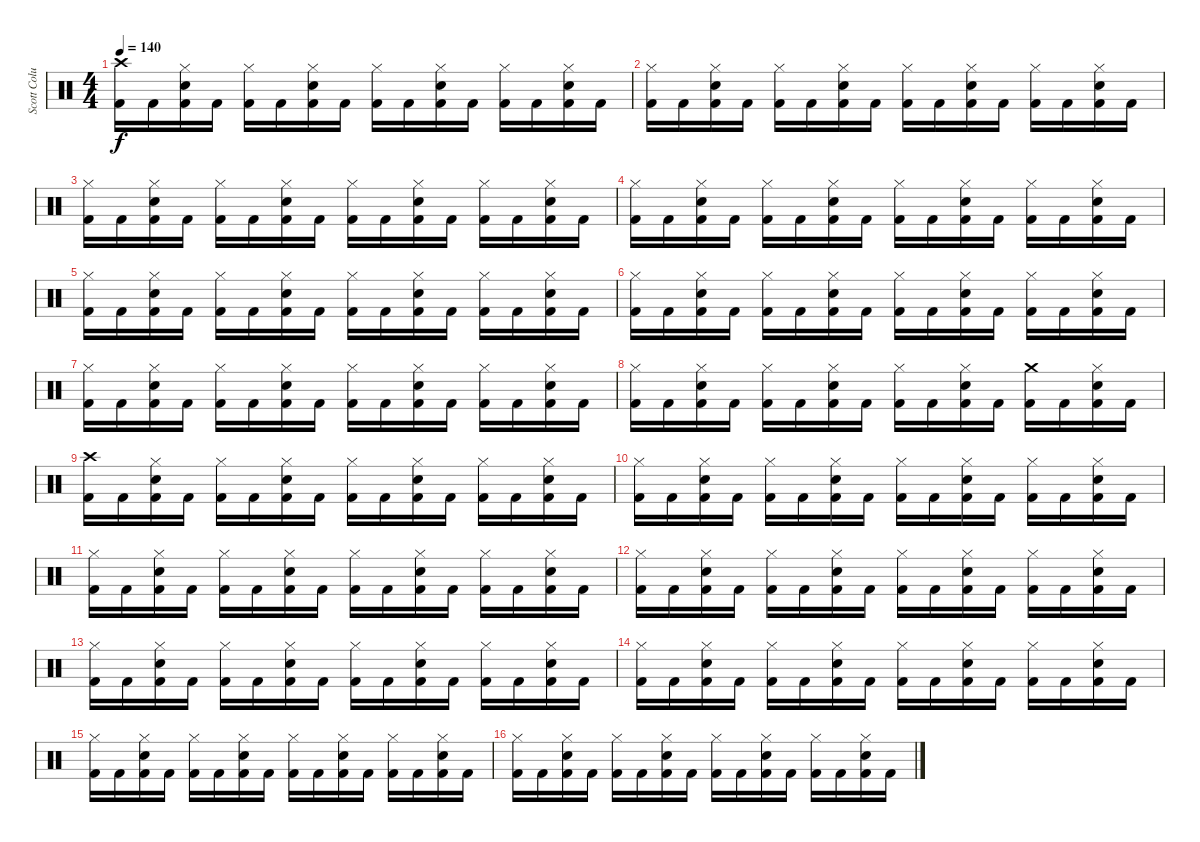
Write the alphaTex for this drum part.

\track ("Scott Columbus(Drums)" "Scott Colu") {instrument percussion}
\staff {score}
\articulation defaults
\ts (4 4)
\tempo 140
\clef neutral
\ks c
("Crash high (hit)" "Kick (hit) 2").16{dy f} "Kick (hit) 2".16 ("Hi-Hat (closed)" "Snare (hit) 2" "Kick (hit) 2").16 "Kick (hit) 2".16 ("Hi-Hat (closed)" "Kick (hit) 2").16 "Kick (hit) 2".16 ("Hi-Hat (closed)" "Snare (hit) 2" "Kick (hit) 2").16 "Kick (hit) 2".16 ("Hi-Hat (closed)" "Kick (hit) 2").16 "Kick (hit) 2".16 ("Hi-Hat (closed)" "Snare (hit) 2" "Kick (hit) 2").16 "Kick (hit) 2".16 ("Hi-Hat (closed)" "Kick (hit) 2").16 "Kick (hit) 2".16 ("Hi-Hat (closed)" "Snare (hit) 2" "Kick (hit) 2").16 "Kick (hit) 2".16 |
("Hi-Hat (closed)" "Kick (hit) 2").16 "Kick (hit) 2".16 ("Hi-Hat (closed)" "Snare (hit) 2" "Kick (hit) 2").16 "Kick (hit) 2".16 ("Hi-Hat (closed)" "Kick (hit) 2").16 "Kick (hit) 2".16 ("Hi-Hat (closed)" "Snare (hit) 2" "Kick (hit) 2").16 "Kick (hit) 2".16 ("Hi-Hat (closed)" "Kick (hit) 2").16 "Kick (hit) 2".16 ("Hi-Hat (closed)" "Snare (hit) 2" "Kick (hit) 2").16 "Kick (hit) 2".16 ("Hi-Hat (closed)" "Kick (hit) 2").16 "Kick (hit) 2".16 ("Hi-Hat (closed)" "Snare (hit) 2" "Kick (hit) 2").16 "Kick (hit) 2".16 |
("Hi-Hat (closed)" "Kick (hit) 2").16 "Kick (hit) 2".16 ("Hi-Hat (closed)" "Snare (hit) 2" "Kick (hit) 2").16 "Kick (hit) 2".16 ("Hi-Hat (closed)" "Kick (hit) 2").16 "Kick (hit) 2".16 ("Hi-Hat (closed)" "Snare (hit) 2" "Kick (hit) 2").16 "Kick (hit) 2".16 ("Hi-Hat (closed)" "Kick (hit) 2").16 "Kick (hit) 2".16 ("Hi-Hat (closed)" "Snare (hit) 2" "Kick (hit) 2").16 "Kick (hit) 2".16 ("Hi-Hat (closed)" "Kick (hit) 2").16 "Kick (hit) 2".16 ("Hi-Hat (closed)" "Snare (hit) 2" "Kick (hit) 2").16 "Kick (hit) 2".16 |
("Hi-Hat (closed)" "Kick (hit) 2").16 "Kick (hit) 2".16 ("Hi-Hat (closed)" "Snare (hit) 2" "Kick (hit) 2").16 "Kick (hit) 2".16 ("Hi-Hat (closed)" "Kick (hit) 2").16 "Kick (hit) 2".16 ("Hi-Hat (closed)" "Snare (hit) 2" "Kick (hit) 2").16 "Kick (hit) 2".16 ("Hi-Hat (closed)" "Kick (hit) 2").16 "Kick (hit) 2".16 ("Hi-Hat (closed)" "Snare (hit) 2" "Kick (hit) 2").16 "Kick (hit) 2".16 ("Hi-Hat (closed)" "Kick (hit) 2").16 "Kick (hit) 2".16 ("Hi-Hat (closed)" "Snare (hit) 2" "Kick (hit) 2").16 "Kick (hit) 2".16 |
("Hi-Hat (closed)" "Kick (hit) 2").16 "Kick (hit) 2".16 ("Hi-Hat (closed)" "Snare (hit) 2" "Kick (hit) 2").16 "Kick (hit) 2".16 ("Hi-Hat (closed)" "Kick (hit) 2").16 "Kick (hit) 2".16 ("Hi-Hat (closed)" "Snare (hit) 2" "Kick (hit) 2").16 "Kick (hit) 2".16 ("Hi-Hat (closed)" "Kick (hit) 2").16 "Kick (hit) 2".16 ("Hi-Hat (closed)" "Snare (hit) 2" "Kick (hit) 2").16 "Kick (hit) 2".16 ("Hi-Hat (closed)" "Kick (hit) 2").16 "Kick (hit) 2".16 ("Hi-Hat (closed)" "Snare (hit) 2" "Kick (hit) 2").16 "Kick (hit) 2".16 |
("Hi-Hat (closed)" "Kick (hit) 2").16 "Kick (hit) 2".16 ("Hi-Hat (closed)" "Snare (hit) 2" "Kick (hit) 2").16 "Kick (hit) 2".16 ("Hi-Hat (closed)" "Kick (hit) 2").16 "Kick (hit) 2".16 ("Hi-Hat (closed)" "Snare (hit) 2" "Kick (hit) 2").16 "Kick (hit) 2".16 ("Hi-Hat (closed)" "Kick (hit) 2").16 "Kick (hit) 2".16 ("Hi-Hat (closed)" "Snare (hit) 2" "Kick (hit) 2").16 "Kick (hit) 2".16 ("Hi-Hat (closed)" "Kick (hit) 2").16 "Kick (hit) 2".16 ("Hi-Hat (closed)" "Snare (hit) 2" "Kick (hit) 2").16 "Kick (hit) 2".16 |
("Hi-Hat (closed)" "Kick (hit) 2").16 "Kick (hit) 2".16 ("Hi-Hat (closed)" "Snare (hit) 2" "Kick (hit) 2").16 "Kick (hit) 2".16 ("Hi-Hat (closed)" "Kick (hit) 2").16 "Kick (hit) 2".16 ("Hi-Hat (closed)" "Snare (hit) 2" "Kick (hit) 2").16 "Kick (hit) 2".16 ("Hi-Hat (closed)" "Kick (hit) 2").16 "Kick (hit) 2".16 ("Hi-Hat (closed)" "Snare (hit) 2" "Kick (hit) 2").16 "Kick (hit) 2".16 ("Hi-Hat (closed)" "Kick (hit) 2").16 "Kick (hit) 2".16 ("Hi-Hat (closed)" "Snare (hit) 2" "Kick (hit) 2").16 "Kick (hit) 2".16 |
("Hi-Hat (closed)" "Kick (hit) 2").16 "Kick (hit) 2".16 ("Hi-Hat (closed)" "Snare (hit) 2" "Kick (hit) 2").16 "Kick (hit) 2".16 ("Hi-Hat (closed)" "Kick (hit) 2").16 "Kick (hit) 2".16 ("Hi-Hat (closed)" "Snare (hit) 2" "Kick (hit) 2").16 "Kick (hit) 2".16 ("Hi-Hat (closed)" "Kick (hit) 2").16 "Kick (hit) 2".16 ("Hi-Hat (closed)" "Snare (hit) 2" "Kick (hit) 2").16 "Kick (hit) 2".16 ("Crash medium (hit)" "Kick (hit) 2").16 "Kick (hit) 2".16 ("Hi-Hat (closed)" "Snare (hit) 2" "Kick (hit) 2").16 "Kick (hit) 2".16 |
("Crash high (hit)" "Kick (hit) 2").16 "Kick (hit) 2".16 ("Hi-Hat (closed)" "Snare (hit) 2" "Kick (hit) 2").16 "Kick (hit) 2".16 ("Hi-Hat (closed)" "Kick (hit) 2").16 "Kick (hit) 2".16 ("Hi-Hat (closed)" "Snare (hit) 2" "Kick (hit) 2").16 "Kick (hit) 2".16 ("Hi-Hat (closed)" "Kick (hit) 2").16 "Kick (hit) 2".16 ("Hi-Hat (closed)" "Snare (hit) 2" "Kick (hit) 2").16 "Kick (hit) 2".16 ("Hi-Hat (closed)" "Kick (hit) 2").16 "Kick (hit) 2".16 ("Hi-Hat (closed)" "Snare (hit) 2" "Kick (hit) 2").16 "Kick (hit) 2".16 |
("Hi-Hat (closed)" "Kick (hit) 2").16 "Kick (hit) 2".16 ("Hi-Hat (closed)" "Snare (hit) 2" "Kick (hit) 2").16 "Kick (hit) 2".16 ("Hi-Hat (closed)" "Kick (hit) 2").16 "Kick (hit) 2".16 ("Hi-Hat (closed)" "Snare (hit) 2" "Kick (hit) 2").16 "Kick (hit) 2".16 ("Hi-Hat (closed)" "Kick (hit) 2").16 "Kick (hit) 2".16 ("Hi-Hat (closed)" "Snare (hit) 2" "Kick (hit) 2").16 "Kick (hit) 2".16 ("Hi-Hat (closed)" "Kick (hit) 2").16 "Kick (hit) 2".16 ("Hi-Hat (closed)" "Snare (hit) 2" "Kick (hit) 2").16 "Kick (hit) 2".16 |
("Hi-Hat (closed)" "Kick (hit) 2").16 "Kick (hit) 2".16 ("Hi-Hat (closed)" "Snare (hit) 2" "Kick (hit) 2").16 "Kick (hit) 2".16 ("Hi-Hat (closed)" "Kick (hit) 2").16 "Kick (hit) 2".16 ("Hi-Hat (closed)" "Snare (hit) 2" "Kick (hit) 2").16 "Kick (hit) 2".16 ("Hi-Hat (closed)" "Kick (hit) 2").16 "Kick (hit) 2".16 ("Hi-Hat (closed)" "Snare (hit) 2" "Kick (hit) 2").16 "Kick (hit) 2".16 ("Hi-Hat (closed)" "Kick (hit) 2").16 "Kick (hit) 2".16 ("Hi-Hat (closed)" "Snare (hit) 2" "Kick (hit) 2").16 "Kick (hit) 2".16 |
("Hi-Hat (closed)" "Kick (hit) 2").16 "Kick (hit) 2".16 ("Hi-Hat (closed)" "Snare (hit) 2" "Kick (hit) 2").16 "Kick (hit) 2".16 ("Hi-Hat (closed)" "Kick (hit) 2").16 "Kick (hit) 2".16 ("Hi-Hat (closed)" "Snare (hit) 2" "Kick (hit) 2").16 "Kick (hit) 2".16 ("Hi-Hat (closed)" "Kick (hit) 2").16 "Kick (hit) 2".16 ("Hi-Hat (closed)" "Snare (hit) 2" "Kick (hit) 2").16 "Kick (hit) 2".16 ("Hi-Hat (closed)" "Kick (hit) 2").16 "Kick (hit) 2".16 ("Hi-Hat (closed)" "Snare (hit) 2" "Kick (hit) 2").16 "Kick (hit) 2".16 |
("Hi-Hat (closed)" "Kick (hit) 2").16 "Kick (hit) 2".16 ("Hi-Hat (closed)" "Snare (hit) 2" "Kick (hit) 2").16 "Kick (hit) 2".16 ("Hi-Hat (closed)" "Kick (hit) 2").16 "Kick (hit) 2".16 ("Hi-Hat (closed)" "Snare (hit) 2" "Kick (hit) 2").16 "Kick (hit) 2".16 ("Hi-Hat (closed)" "Kick (hit) 2").16 "Kick (hit) 2".16 ("Hi-Hat (closed)" "Snare (hit) 2" "Kick (hit) 2").16 "Kick (hit) 2".16 ("Hi-Hat (closed)" "Kick (hit) 2").16 "Kick (hit) 2".16 ("Hi-Hat (closed)" "Snare (hit) 2" "Kick (hit) 2").16 "Kick (hit) 2".16 |
("Hi-Hat (closed)" "Kick (hit) 2").16 "Kick (hit) 2".16 ("Hi-Hat (closed)" "Snare (hit) 2" "Kick (hit) 2").16 "Kick (hit) 2".16 ("Hi-Hat (closed)" "Kick (hit) 2").16 "Kick (hit) 2".16 ("Hi-Hat (closed)" "Snare (hit) 2" "Kick (hit) 2").16 "Kick (hit) 2".16 ("Hi-Hat (closed)" "Kick (hit) 2").16 "Kick (hit) 2".16 ("Hi-Hat (closed)" "Snare (hit) 2" "Kick (hit) 2").16 "Kick (hit) 2".16 ("Hi-Hat (closed)" "Kick (hit) 2").16 "Kick (hit) 2".16 ("Hi-Hat (closed)" "Snare (hit) 2" "Kick (hit) 2").16 "Kick (hit) 2".16 |
("Hi-Hat (closed)" "Kick (hit) 2").16 "Kick (hit) 2".16 ("Hi-Hat (closed)" "Snare (hit) 2" "Kick (hit) 2").16 "Kick (hit) 2".16 ("Hi-Hat (closed)" "Kick (hit) 2").16 "Kick (hit) 2".16 ("Hi-Hat (closed)" "Snare (hit) 2" "Kick (hit) 2").16 "Kick (hit) 2".16 ("Hi-Hat (closed)" "Kick (hit) 2").16 "Kick (hit) 2".16 ("Hi-Hat (closed)" "Snare (hit) 2" "Kick (hit) 2").16 "Kick (hit) 2".16 ("Hi-Hat (closed)" "Kick (hit) 2").16 "Kick (hit) 2".16 ("Hi-Hat (closed)" "Snare (hit) 2" "Kick (hit) 2").16 "Kick (hit) 2".16 |
("Hi-Hat (closed)" "Kick (hit) 2").16 "Kick (hit) 2".16 ("Hi-Hat (closed)" "Snare (hit) 2" "Kick (hit) 2").16 "Kick (hit) 2".16 ("Hi-Hat (closed)" "Kick (hit) 2").16 "Kick (hit) 2".16 ("Hi-Hat (closed)" "Snare (hit) 2" "Kick (hit) 2").16 "Kick (hit) 2".16 ("Hi-Hat (closed)" "Kick (hit) 2").16 "Kick (hit) 2".16 ("Hi-Hat (closed)" "Snare (hit) 2" "Kick (hit) 2").16 "Kick (hit) 2".16 ("Hi-Hat (closed)" "Kick (hit) 2").16 "Kick (hit) 2".16 ("Hi-Hat (closed)" "Snare (hit) 2" "Kick (hit) 2").16 "Kick (hit) 2".16
